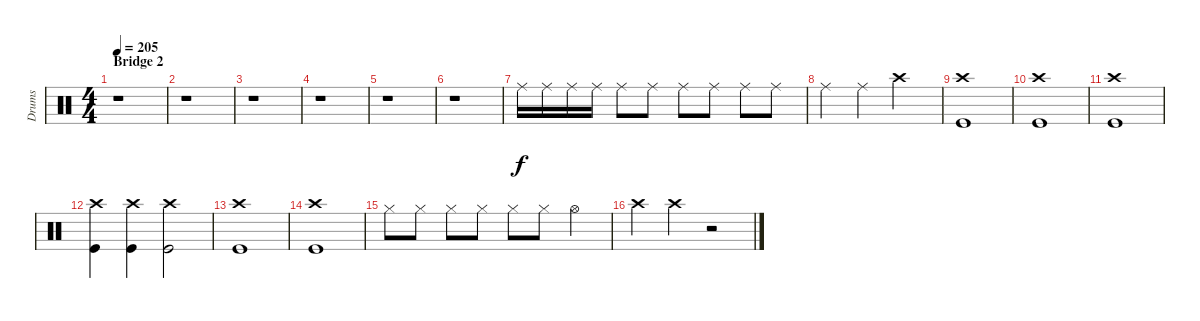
\track ("Drums" "Drums") {instrument percussion}
\staff {score}
\articulation defaults
\ts (4 4)
\section ("" "Bridge 2")
\tempo 205
\clef neutral
\ks c
r.1{dy fff} |
r.1 |
r.1 |
r.1 |
r.1 |
r.1 |
"Ride (middle)".16{dy f} "Ride (middle)".16 "Ride (middle)".16 "Ride (middle)".16 "Ride (middle)".8 "Ride (middle)".8 "Ride (middle)".8 "Ride (middle)".8 "Ride (middle)".8 "Ride (middle)".8 |
"Ride (middle)".4 "Ride (middle)".4 "Crash high (hit)".2 |
("Crash high (hit)" "Kick (hit)").1 |
("Crash high (hit)" "Kick (hit)").1 |
("Crash high (hit)" "Kick (hit)").1 |
("Crash high (hit)" "Kick (hit)").4 ("Crash high (hit)" "Kick (hit)").4 ("Crash high (hit)" "Kick (hit)").2 |
("Crash high (hit)" "Kick (hit)").1 |
("Crash high (hit)" "Kick (hit)").1 |
"Hi-Hat (closed)".8 "Hi-Hat (closed)".8 "Hi-Hat (closed)".8 "Hi-Hat (closed)".8 "Hi-Hat (closed)".8 "Hi-Hat (closed)".8 "Hi-Hat (open)".4 |
"Crash high (hit)".4 "Crash high (hit)".4 r.2
